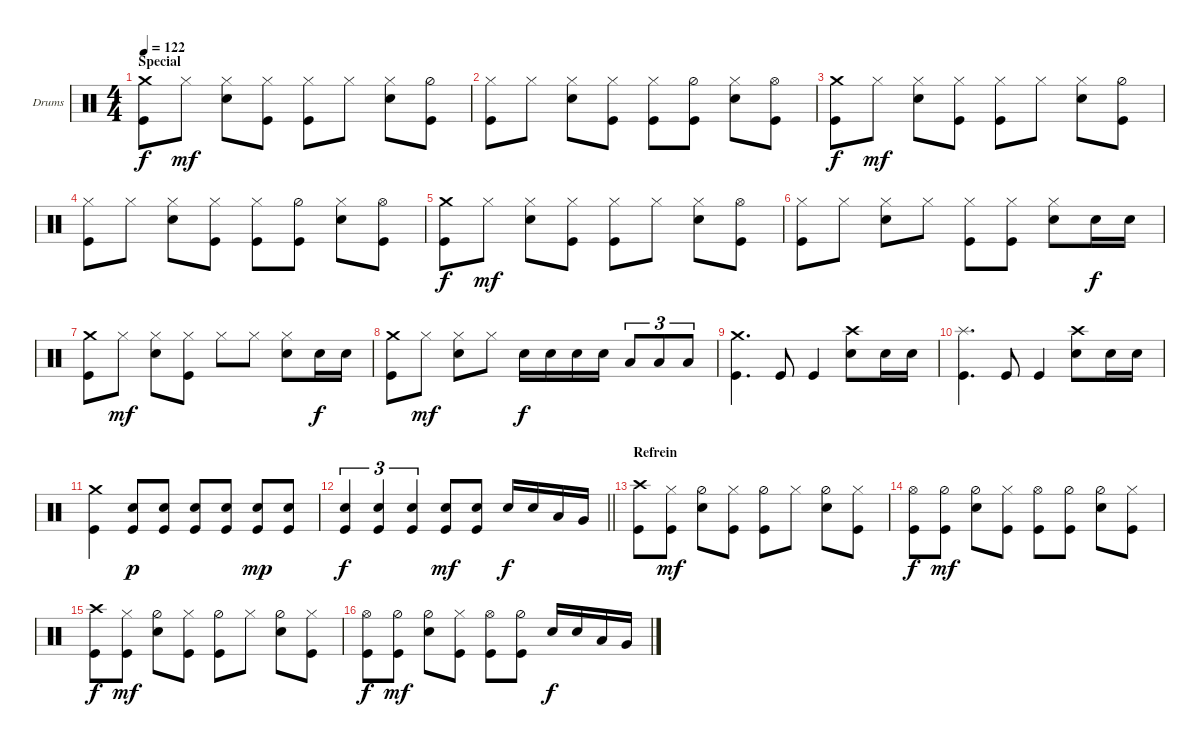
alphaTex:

\bracketExtendMode groupsimilarinstruments
\firstSystemTrackNameOrientation horizontal
\otherSystemsTrackNameOrientation horizontal
\track ("Batteria" "Drums") {instrument percussion}
\staff {score}
\articulation defaults
\ts (4 4)
\section ("" "Special")
\tempo 122
\clef neutral
\ks c
("Crash medium (hit)" "Kick (hit)").8{dy f} "Hi-Hat (closed)".8{dy mf} ("Hi-Hat (closed)" "Snare (hit) 2").8 ("Hi-Hat (closed)" "Kick (hit)").8 ("Hi-Hat (closed)" "Kick (hit)").8 "Hi-Hat (closed)".8 ("Hi-Hat (closed)" "Snare (hit) 2").8 ("Hi-Hat (half)" "Kick (hit)").8 |
("Kick (hit)" "Hi-Hat (closed)").8 "Hi-Hat (closed)".8 ("Hi-Hat (closed)" "Snare (hit) 2").8 ("Hi-Hat (closed)" "Kick (hit)").8 ("Hi-Hat (closed)" "Kick (hit)").8 ("Hi-Hat (half)" "Kick (hit)").8 ("Hi-Hat (closed)" "Snare (hit) 2").8 ("Hi-Hat (open)" "Kick (hit)").8 |
("Crash medium (hit)" "Kick (hit)").8{dy f} "Hi-Hat (closed)".8{dy mf} ("Hi-Hat (closed)" "Snare (hit) 2").8 ("Hi-Hat (closed)" "Kick (hit)").8 ("Hi-Hat (closed)" "Kick (hit)").8 "Hi-Hat (closed)".8 ("Hi-Hat (closed)" "Snare (hit) 2").8 ("Hi-Hat (half)" "Kick (hit)").8 |
("Kick (hit)" "Hi-Hat (closed)").8 "Hi-Hat (closed)".8 ("Hi-Hat (closed)" "Snare (hit) 2").8 ("Hi-Hat (closed)" "Kick (hit)").8 ("Hi-Hat (closed)" "Kick (hit)").8 ("Hi-Hat (half)" "Kick (hit)").8 ("Hi-Hat (closed)" "Snare (hit) 2").8 ("Hi-Hat (open)" "Kick (hit)").8 |
("Crash medium (hit)" "Kick (hit)").8{dy f} "Hi-Hat (closed)".8{dy mf} ("Hi-Hat (closed)" "Snare (hit) 2").8 ("Hi-Hat (closed)" "Kick (hit)").8 ("Hi-Hat (closed)" "Kick (hit)").8 "Hi-Hat (closed)".8 ("Hi-Hat (closed)" "Snare (hit) 2").8 ("Hi-Hat (open)" "Kick (hit)").8 |
("Kick (hit)" "Hi-Hat (closed)").8 "Hi-Hat (closed)".8 ("Hi-Hat (closed)" "Snare (hit) 2").8 "Hi-Hat (closed)".8 ("Hi-Hat (closed)" "Kick (hit)").8 ("Hi-Hat (closed)" "Kick (hit)").8 ("Hi-Hat (closed)" "Snare (hit) 2").8 "Snare (hit) 2".16{dy f} "Snare (hit) 2".16 |
("Crash medium (hit)" "Kick (hit)").8 "Hi-Hat (closed)".8{dy mf} ("Hi-Hat (closed)" "Snare (hit) 2").8 ("Hi-Hat (closed)" "Kick (hit)").8 "Hi-Hat (closed)".8 "Hi-Hat (closed)".8 ("Hi-Hat (closed)" "Snare (hit) 2").8 "Snare (hit) 2".16{dy f} "Snare (hit) 2".16 |
("Crash medium (hit)" "Kick (hit)").8 "Hi-Hat (closed)".8{dy mf} ("Hi-Hat (closed)" "Snare (hit) 2").8 "Hi-Hat (closed)".8 "Snare (hit) 2".16{dy f} "Snare (hit) 2".16 "Snare (hit) 2".16 "Snare (hit) 2".16 "Low Tom (hit)".8{tu (3 2)} "Low Tom (hit)".8{tu (3 2)} "Low Tom (hit)".8{tu (3 2)} |
("Crash medium (hit)" "Kick (hit)").4{d} "Kick (hit)".8 "Kick (hit)".4 ("Snare (hit) 2" "Crash high (hit)").8 "Snare (hit) 2".16 "Snare (hit) 2".16 |
("Kick (hit)" "Splash (hit)").4{d} "Kick (hit)".8 "Kick (hit)".4 ("Snare (hit) 2" "Crash high (hit)").8 "Snare (hit) 2".16 "Snare (hit) 2".16 |
("Crash medium (hit)" "Kick (hit)").4 ("Snare (hit) 2" "Kick (hit)").8{dy p} ("Kick (hit)" "Snare (hit) 2").8 ("Kick (hit)" "Snare (hit) 2").8 ("Snare (hit) 2" "Kick (hit)").8 ("Snare (hit) 2" "Kick (hit)").8{dy mp} ("Snare (hit) 2" "Kick (hit)").8 |
\barLineRight lightlight
("Snare (hit) 2" "Kick (hit)").4{tu (3 2) dy f} ("Snare (hit) 2" "Kick (hit)").4{tu (3 2)} ("Snare (hit) 2" "Kick (hit)").4{tu (3 2)} ("Snare (hit) 2" "Kick (hit)").8{dy mf} ("Snare (hit) 2" "Kick (hit)").8 "Snare (hit) 2".16{dy f} "Snare (hit) 2".16 "Low Tom (hit)".16 "Very Low Tom (hit)".16 |
\section ("" "Refrein")
("Kick (hit)" "Crash high (hit)").8 ("Hi-Hat (closed)" "Kick (hit)").8{dy mf} ("Hi-Hat (half)" "Snare (hit) 2").8 ("Hi-Hat (closed)" "Kick (hit)").8 ("Hi-Hat (half)" "Kick (hit)").8 "Hi-Hat (closed)".8 ("Hi-Hat (half)" "Snare (hit) 2").8 ("Hi-Hat (closed)" "Kick (hit)").8 |
("Kick (hit)" "Hi-Hat (open)").8{dy f} ("Hi-Hat (half)" "Kick (hit)").8{dy mf} ("Hi-Hat (half)" "Snare (hit) 2").8 ("Hi-Hat (closed)" "Kick (hit)").8 ("Hi-Hat (open)" "Kick (hit)").8 ("Hi-Hat (half)" "Kick (hit)").8 ("Hi-Hat (half)" "Snare (hit) 2").8 ("Hi-Hat (closed)" "Kick (hit)").8 |
("Kick (hit)" "Crash high (hit)").8{dy f} ("Hi-Hat (closed)" "Kick (hit)").8{dy mf} ("Hi-Hat (half)" "Snare (hit) 2").8 ("Hi-Hat (closed)" "Kick (hit)").8 ("Hi-Hat (half)" "Kick (hit)").8 "Hi-Hat (closed)".8 ("Hi-Hat (half)" "Snare (hit) 2").8 ("Hi-Hat (closed)" "Kick (hit)").8 |
("Kick (hit)" "Hi-Hat (open)").8{dy f} ("Hi-Hat (half)" "Kick (hit)").8{dy mf} ("Hi-Hat (half)" "Snare (hit) 2").8 ("Hi-Hat (closed)" "Kick (hit)").8 ("Hi-Hat (open)" "Kick (hit)").8 ("Hi-Hat (half)" "Kick (hit)").8 "Snare (hit) 2".16{dy f} "Snare (hit) 2".16 "Low Tom (hit)".16 "Very Low Tom (hit)".16
